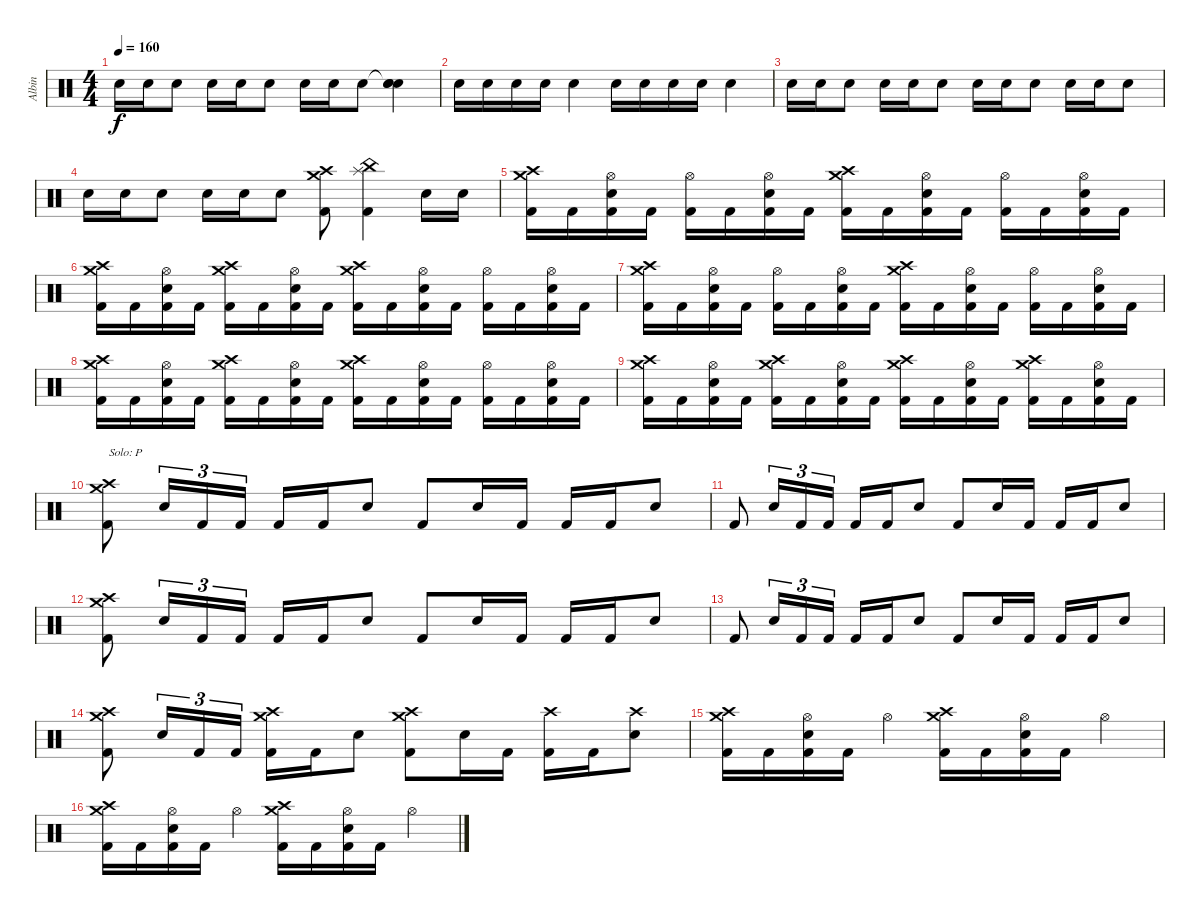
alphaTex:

\track ("Albin" "Albin") {instrument percussion}
\staff {score}
\articulation defaults
\ts (4 4)
\tempo 160
\clef neutral
\ks c "Electric Snare (hit)".16{dy f} "Electric Snare (hit)".16 "Electric Snare (hit)".8 "Electric Snare (hit)".16 "Electric Snare (hit)".16 "Electric Snare (hit)".8 "Electric Snare (hit)".16 "Electric Snare (hit)".16 "Electric Snare (hit)".8
("Snare (hit)"{t} "Snare (hit)"{t} "Snare (hit)"{t}).4 |
"Electric Snare (hit)".16 "Electric Snare (hit)".16 "Electric Snare (hit)".16 "Electric Snare (hit)".16 "Electric Snare (hit)".4 "Electric Snare (hit)".16 "Electric Snare (hit)".16 "Electric Snare (hit)".16 "Electric Snare (hit)".16 "Electric Snare (hit)".4 |
"Electric Snare (hit)".16 "Electric Snare (hit)".16 "Electric Snare (hit)".8 "Electric Snare (hit)".16 "Electric Snare (hit)".16 "Electric Snare (hit)".8 "Electric Snare (hit)".16 "Electric Snare (hit)".16 "Electric Snare (hit)".8 "Electric Snare (hit)".16 "Electric Snare (hit)".16 "Electric Snare (hit)".8 |
"Electric Snare (hit)".16 "Electric Snare (hit)".16 "Electric Snare (hit)".8 "Electric Snare (hit)".16 "Electric Snare (hit)".16 "Electric Snare (hit)".8 ("Kick (hit) 2" "Crash medium (hit)" "Crash high (hit)").8 ("Kick (hit) 2" "China (hit)" "Splash (hit)").4 "Electric Snare (hit)".16 "Electric Snare (hit)".16 |
("Kick (hit) 2" "Crash medium (hit)" "Crash high (hit)").16 "Kick (hit) 2".16 ("Kick (hit) 2" "Electric Snare (hit)" "Hi-Hat (open)").16 "Kick (hit) 2".16 ("Kick (hit) 2" "Hi-Hat (open)").16 "Kick (hit) 2".16 ("Kick (hit) 2" "Electric Snare (hit)" "Hi-Hat (open)").16 "Kick (hit) 2".16 ("Kick (hit) 2" "Crash high (hit)" "Crash medium (hit)").16 "Kick (hit) 2".16 ("Kick (hit) 2" "Electric Snare (hit)" "Hi-Hat (open)").16 "Kick (hit) 2".16 ("Kick (hit) 2" "Hi-Hat (open)").16 "Kick (hit) 2".16 ("Kick (hit) 2" "Electric Snare (hit)" "Hi-Hat (open)").16 "Kick (hit) 2".16 |
("Kick (hit) 2" "Crash medium (hit)" "Crash high (hit)").16 "Kick (hit) 2".16 ("Kick (hit) 2" "Electric Snare (hit)" "Hi-Hat (open)").16 "Kick (hit) 2".16 ("Kick (hit) 2" "Crash high (hit)" "Crash medium (hit)").16 "Kick (hit) 2".16 ("Kick (hit) 2" "Electric Snare (hit)" "Hi-Hat (open)").16 "Kick (hit) 2".16 ("Kick (hit) 2" "Crash medium (hit)" "Crash high (hit)").16 "Kick (hit) 2".16 ("Kick (hit) 2" "Electric Snare (hit)" "Hi-Hat (open)").16 "Kick (hit) 2".16 ("Kick (hit) 2" "Hi-Hat (open)").16 "Kick (hit) 2".16 ("Kick (hit) 2" "Electric Snare (hit)" "Hi-Hat (open)").16 "Kick (hit) 2".16 |
("Kick (hit) 2" "Crash high (hit)" "Crash medium (hit)").16 "Kick (hit) 2".16 ("Kick (hit) 2" "Electric Snare (hit)" "Hi-Hat (open)").16 "Kick (hit) 2".16 ("Kick (hit) 2" "Hi-Hat (open)").16 "Kick (hit) 2".16 ("Kick (hit) 2" "Electric Snare (hit)" "Hi-Hat (open)").16 "Kick (hit) 2".16 ("Kick (hit) 2" "Crash medium (hit)" "Crash high (hit)").16 "Kick (hit) 2".16 ("Kick (hit) 2" "Electric Snare (hit)" "Hi-Hat (open)").16 "Kick (hit) 2".16 ("Kick (hit) 2" "Hi-Hat (open)").16 "Kick (hit) 2".16 ("Kick (hit) 2" "Electric Snare (hit)" "Hi-Hat (open)").16 "Kick (hit) 2".16 |
("Kick (hit) 2" "Crash high (hit)" "Crash medium (hit)").16 "Kick (hit) 2".16 ("Kick (hit) 2" "Electric Snare (hit)" "Hi-Hat (open)").16 "Kick (hit) 2".16 ("Kick (hit) 2" "Crash medium (hit)" "Crash high (hit)").16 "Kick (hit) 2".16 ("Kick (hit) 2" "Electric Snare (hit)" "Hi-Hat (open)").16 "Kick (hit) 2".16 ("Kick (hit) 2" "Crash high (hit)" "Crash medium (hit)").16 "Kick (hit) 2".16 ("Kick (hit) 2" "Electric Snare (hit)" "Hi-Hat (open)").16 "Kick (hit) 2".16 ("Kick (hit) 2" "Hi-Hat (open)").16 "Kick (hit) 2".16 ("Kick (hit) 2" "Electric Snare (hit)" "Hi-Hat (open)").16 "Kick (hit) 2".16 |
("Kick (hit) 2" "Crash high (hit)" "Crash medium (hit)").16 "Kick (hit) 2".16 ("Kick (hit) 2" "Electric Snare (hit)" "Hi-Hat (open)").16 "Kick (hit) 2".16 ("Kick (hit) 2" "Crash medium (hit)" "Crash high (hit)").16 "Kick (hit) 2".16 ("Kick (hit) 2" "Electric Snare (hit)" "Hi-Hat (open)").16 "Kick (hit) 2".16 ("Kick (hit) 2" "Crash high (hit)" "Crash medium (hit)").16 "Kick (hit) 2".16 ("Kick (hit) 2" "Electric Snare (hit)" "Hi-Hat (open)").16 "Kick (hit) 2".16 ("Kick (hit) 2" "Crash medium (hit)" "Crash high (hit)").16 "Kick (hit) 2".16 ("Kick (hit) 2" "Electric Snare (hit)" "Hi-Hat (open)").16 "Kick (hit) 2".16 |
("Kick (hit) 2" "Crash high (hit)" "Crash medium (hit)").8{txt "Solo: P"} "Electric Snare (hit)".16{tu (3 2)} "Kick (hit) 2".16{tu (3 2)} "Kick (hit) 2".16{tu (3 2)} "Kick (hit) 2".16 "Kick (hit) 2".16 "Electric Snare (hit)".8 "Kick (hit) 2".8 "Electric Snare (hit)".16 "Kick (hit) 2".16 "Kick (hit) 2".16 "Kick (hit) 2".16 "Electric Snare (hit)".8 |
"Kick (hit) 2".8 "Electric Snare (hit)".16{tu (3 2)} "Kick (hit) 2".16{tu (3 2)} "Kick (hit) 2".16{tu (3 2)} "Kick (hit) 2".16 "Kick (hit) 2".16 "Electric Snare (hit)".8 "Kick (hit) 2".8 "Electric Snare (hit)".16 "Kick (hit) 2".16 "Kick (hit) 2".16 "Kick (hit) 2".16 "Electric Snare (hit)".8 |
("Kick (hit) 2" "Crash medium (hit)" "Crash high (hit)").8 "Electric Snare (hit)".16{tu (3 2)} "Kick (hit) 2".16{tu (3 2)} "Kick (hit) 2".16{tu (3 2)} "Kick (hit) 2".16 "Kick (hit) 2".16 "Electric Snare (hit)".8 "Kick (hit) 2".8 "Electric Snare (hit)".16 "Kick (hit) 2".16 "Kick (hit) 2".16 "Kick (hit) 2".16 "Electric Snare (hit)".8 |
"Kick (hit) 2".8 "Electric Snare (hit)".16{tu (3 2)} "Kick (hit) 2".16{tu (3 2)} "Kick (hit) 2".16{tu (3 2)} "Kick (hit) 2".16 "Kick (hit) 2".16 "Electric Snare (hit)".8 "Kick (hit) 2".8 "Electric Snare (hit)".16 "Kick (hit) 2".16 "Kick (hit) 2".16 "Kick (hit) 2".16 "Electric Snare (hit)".8 |
("Kick (hit) 2" "Crash high (hit)" "Crash medium (hit)").8 "Electric Snare (hit)".16{tu (3 2)} "Kick (hit) 2".16{tu (3 2)} "Kick (hit) 2".16{tu (3 2)} ("Kick (hit) 2" "Crash medium (hit)" "Crash high (hit)").16 "Kick (hit) 2".16 "Electric Snare (hit)".8 ("Kick (hit) 2" "Crash high (hit)" "Crash medium (hit)").8 "Electric Snare (hit)".16 "Kick (hit) 2".16 ("Kick (hit) 2" "Crash high (hit)").16 "Kick (hit) 2".16 ("Electric Snare (hit)" "Crash high (hit)").8 |
("Kick (hit) 2" "Crash medium (hit)" "Crash high (hit)").16 "Kick (hit) 2".16 ("Kick (hit) 2" "Electric Snare (hit)" "Hi-Hat (open)").16 "Kick (hit) 2".16 "Hi-Hat (open)".4 ("Kick (hit) 2" "Crash high (hit)" "Crash medium (hit)").16 "Kick (hit) 2".16 ("Kick (hit) 2" "Electric Snare (hit)" "Hi-Hat (open)").16 "Kick (hit) 2".16 "Hi-Hat (open)".4 |
("Kick (hit) 2" "Crash medium (hit)" "Crash high (hit)").16 "Kick (hit) 2".16 ("Kick (hit) 2" "Electric Snare (hit)" "Hi-Hat (open)").16 "Kick (hit) 2".16 "Hi-Hat (open)".4 ("Kick (hit) 2" "Crash high (hit)" "Crash medium (hit)").16 "Kick (hit) 2".16 ("Kick (hit) 2" "Electric Snare (hit)" "Hi-Hat (open)").16 "Kick (hit) 2".16 "Hi-Hat (open)".4
